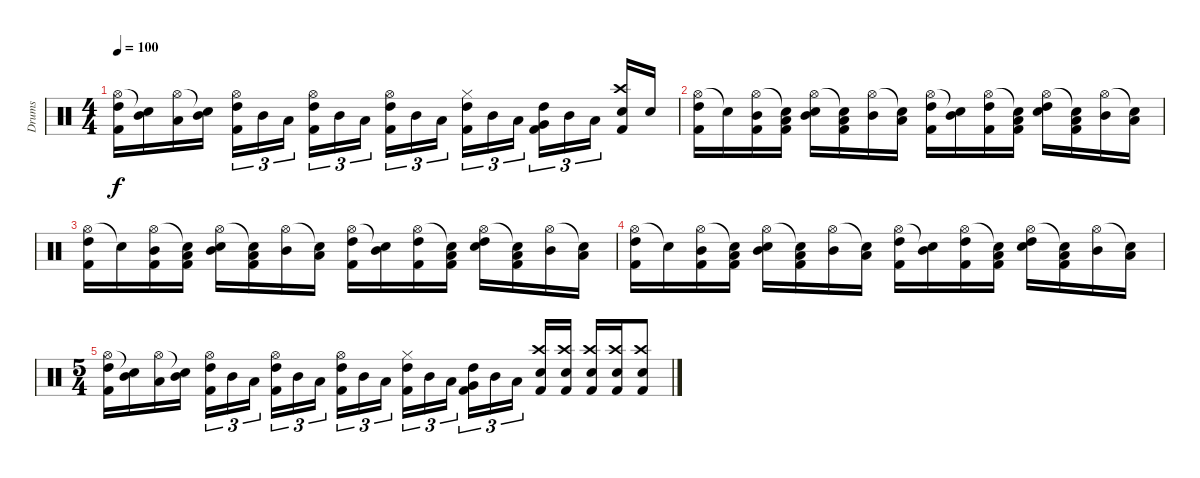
\track ("Drums" "Drums") {instrument percussion}
\staff {score}
\articulation defaults
\ts (4 4)
\tempo 100
\clef neutral
\ks c
("Hi-Hat (open)" "High Tom (hit)" "Kick (hit) 2").16{dy f} ("Snare (hit)"{t} "Mid Tom (hit)").16 ("Hi-Hat (open)" "Low Tom (hit)").16 ("Snare (hit)"{t} "Mid Tom (hit)").16 ("Hi-Hat (open)" "High Tom (hit)" "Kick (hit) 2").16{tu (3 2)} "Mid Tom (hit)".16{tu (3 2)} "Low Tom (hit)".16{tu (3 2)} ("Hi-Hat (open)" "High Tom (hit)" "Kick (hit) 2").16{tu (3 2)} "Mid Tom (hit)".16{tu (3 2)} "Low Tom (hit)".16{tu (3 2)} ("Hi-Hat (open)" "High Tom (hit)" "Kick (hit) 2").16{tu (3 2)} "Mid Tom (hit)".16{tu (3 2)} "Low Tom (hit)".16{tu (3 2)} ("Hi-Hat (closed)" "High Tom (hit)" "Kick (hit) 2").16{tu (3 2)} "Mid Tom (hit)".16{tu (3 2)} "Low Tom (hit)".16{tu (3 2)} ("Very Low Tom (hit)" "High Tom (hit)" "Kick (hit) 2").16{tu (3 2)} "Mid Tom (hit)".16{tu (3 2)} "Low Tom (hit)".16{tu (3 2)} ("Crash high (hit)" "Electric Snare (hit)" "Kick (hit) 2").16 "Electric Snare (hit)".16 |
("Hi-Hat (open)" "High Tom (hit)" "Kick (hit) 2").16{volume 16} "Snare (hit)"{t}.16 ("Hi-Hat (open)" "Mid Tom (hit)" "Kick (hit) 2").16 ("Snare (hit)"{t} "Low Tom (hit)" "Kick (hit) 2").16 ("Hi-Hat (open)" "Mid Tom (hit)" "Electric Snare (hit)").16 ("Snare (hit)"{t} "Low Tom (hit)" "Kick (hit) 2").16 ("Hi-Hat (open)" "Mid Tom (hit)").16 ("Snare (hit)"{t} "Low Tom (hit)").16 ("Hi-Hat (open)" "High Tom (hit)" "Kick (hit) 2").16 ("Snare (hit)"{t} "Mid Tom (hit)").16 ("Hi-Hat (open)" "High Tom (hit)" "Kick (hit) 2").16 ("Snare (hit)"{t} "Low Tom (hit)" "Kick (hit) 2").16 ("Hi-Hat (open)" "High Tom (hit)" "Electric Snare (hit)").16 ("Snare (hit)"{t} "Low Tom (hit)" "Kick (hit) 2").16 ("Hi-Hat (open)" "Mid Tom (hit)").16 ("Snare (hit)"{t} "Low Tom (hit)").16 |
("Hi-Hat (open)" "High Tom (hit)" "Kick (hit) 2").16 "Snare (hit)"{t}.16 ("Hi-Hat (open)" "Mid Tom (hit)" "Kick (hit) 2").16 ("Snare (hit)"{t} "Low Tom (hit)" "Kick (hit) 2").16 ("Hi-Hat (open)" "Mid Tom (hit)" "Electric Snare (hit)").16 ("Snare (hit)"{t} "Low Tom (hit)" "Kick (hit) 2").16 ("Hi-Hat (open)" "Mid Tom (hit)").16 ("Snare (hit)"{t} "Low Tom (hit)").16 ("Hi-Hat (open)" "High Tom (hit)" "Kick (hit) 2").16 ("Snare (hit)"{t} "Mid Tom (hit)").16 ("Hi-Hat (open)" "High Tom (hit)" "Kick (hit) 2").16 ("Snare (hit)"{t} "Low Tom (hit)" "Kick (hit) 2").16 ("Hi-Hat (open)" "High Tom (hit)" "Electric Snare (hit)").16 ("Snare (hit)"{t} "Low Tom (hit)" "Kick (hit) 2").16 ("Hi-Hat (open)" "Mid Tom (hit)").16 ("Snare (hit)"{t} "Low Tom (hit)").16 |
("Hi-Hat (open)" "High Tom (hit)" "Kick (hit) 2").16 "Snare (hit)"{t}.16 ("Hi-Hat (open)" "Mid Tom (hit)" "Kick (hit) 2").16 ("Snare (hit)"{t} "Low Tom (hit)" "Kick (hit) 2").16 ("Hi-Hat (open)" "Mid Tom (hit)" "Electric Snare (hit)").16 ("Snare (hit)"{t} "Low Tom (hit)" "Kick (hit) 2").16 ("Hi-Hat (open)" "Mid Tom (hit)").16 ("Snare (hit)"{t} "Low Tom (hit)").16 ("Hi-Hat (open)" "High Tom (hit)" "Kick (hit) 2").16 ("Snare (hit)"{t} "Mid Tom (hit)").16 ("Hi-Hat (open)" "High Tom (hit)" "Kick (hit) 2").16 ("Snare (hit)"{t} "Low Tom (hit)" "Kick (hit) 2").16 ("Hi-Hat (open)" "High Tom (hit)" "Electric Snare (hit)").16 ("Snare (hit)"{t} "Low Tom (hit)" "Kick (hit) 2").16 ("Hi-Hat (open)" "Mid Tom (hit)").16 ("Snare (hit)"{t} "Low Tom (hit)").16 |
\ts (5 4)
("Hi-Hat (open)" "High Tom (hit)" "Kick (hit) 2").16 ("Snare (hit)"{t} "Mid Tom (hit)").16 ("Hi-Hat (open)" "Low Tom (hit)").16 ("Snare (hit)"{t} "Mid Tom (hit)").16 ("Hi-Hat (open)" "High Tom (hit)" "Kick (hit) 2").16{tu (3 2)} "Mid Tom (hit)".16{tu (3 2)} "Low Tom (hit)".16{tu (3 2)} ("Hi-Hat (open)" "High Tom (hit)" "Kick (hit) 2").16{tu (3 2)} "Mid Tom (hit)".16{tu (3 2)} "Low Tom (hit)".16{tu (3 2)} ("Hi-Hat (open)" "High Tom (hit)" "Kick (hit) 2").16{tu (3 2)} "Mid Tom (hit)".16{tu (3 2)} "Low Tom (hit)".16{tu (3 2)} ("Hi-Hat (closed)" "High Tom (hit)" "Kick (hit) 2").16{tu (3 2)} "Mid Tom (hit)".16{tu (3 2)} "Low Tom (hit)".16{tu (3 2)} ("Very Low Tom (hit)" "High Tom (hit)" "Kick (hit) 2").16{tu (3 2)} "Mid Tom (hit)".16{tu (3 2)} "Low Tom (hit)".16{tu (3 2)} ("Crash high (hit)" "Electric Snare (hit)" "Kick (hit) 2").16 ("Crash high (hit)" "Electric Snare (hit)" "Kick (hit) 2").16 ("Crash high (hit)" "Electric Snare (hit)" "Kick (hit) 2").16 ("Crash high (hit)" "Electric Snare (hit)" "Kick (hit) 2").16 ("Crash high (hit)" "Electric Snare (hit)" "Kick (hit) 2").8
